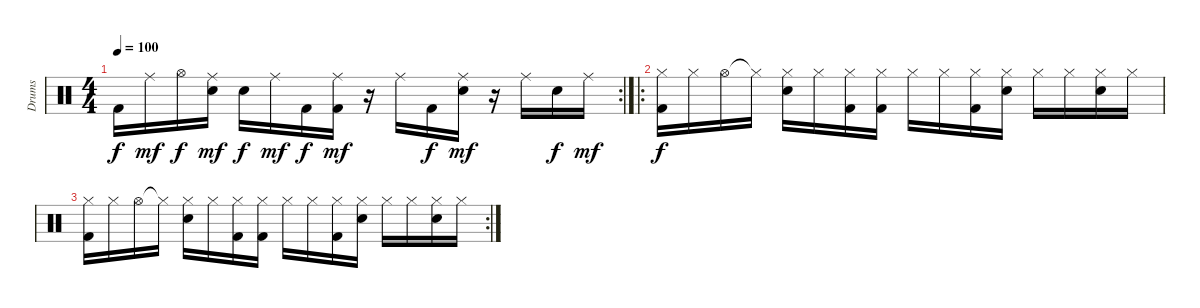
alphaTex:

\track ("Drums" "Drums") {instrument percussion}
\staff {score}
\articulation defaults
\rc 2
\ts (4 4)
\tempo 100
\clef neutral
\ks c "Kick (hit) 2".16{dy f} "Ride (middle)".16{dy mf} "Hi-Hat (open)".16{dy f}
("Ride (middle)" "Snare (hit)"{t}).16{dy mf} "Electric Snare (hit)".16{dy f} "Ride (middle)".16{dy mf} "Kick (hit) 2".16{dy f} ("Ride (middle)" "Kick (hit) 2").16{dy mf} r.16 "Ride (middle)".16 "Kick (hit) 2".16{dy f} ("Ride (middle)" "Electric Snare (hit)").16{dy mf} r.16 "Ride (middle)".16 "Electric Snare (hit)".16{dy f} "Ride (middle)".16{dy mf} |
\ro
("Hi-Hat (closed)" "Kick (hit) 2").16{dy f} "Hi-Hat (closed)".16 "Hi-Hat (open)".16 "Hi-Hat (closed)"{t}.16 ("Hi-Hat (closed)" "Electric Snare (hit)").16 "Hi-Hat (closed)".16 ("Hi-Hat (closed)" "Kick (hit) 2").16 ("Hi-Hat (closed)" "Kick (hit) 2").16 "Hi-Hat (closed)".16 "Hi-Hat (closed)".16 ("Hi-Hat (closed)" "Kick (hit) 2").16 ("Hi-Hat (closed)" "Electric Snare (hit)").16 "Hi-Hat (closed)".16 "Hi-Hat (closed)".16 ("Hi-Hat (closed)" "Electric Snare (hit)").16 "Hi-Hat (closed)".16 |
\rc 2
("Hi-Hat (closed)" "Kick (hit) 2").16 "Hi-Hat (closed)".16 "Hi-Hat (open)".16 "Hi-Hat (closed)"{t}.16 ("Hi-Hat (closed)" "Electric Snare (hit)").16 "Hi-Hat (closed)".16 ("Hi-Hat (closed)" "Kick (hit) 2").16 ("Hi-Hat (closed)" "Kick (hit) 2").16 "Hi-Hat (closed)".16 "Hi-Hat (closed)".16 ("Hi-Hat (closed)" "Kick (hit) 2").16 ("Hi-Hat (closed)" "Electric Snare (hit)").16 "Hi-Hat (closed)".16 "Hi-Hat (closed)".16 ("Hi-Hat (closed)" "Electric Snare (hit)").16 "Hi-Hat (closed)".16
